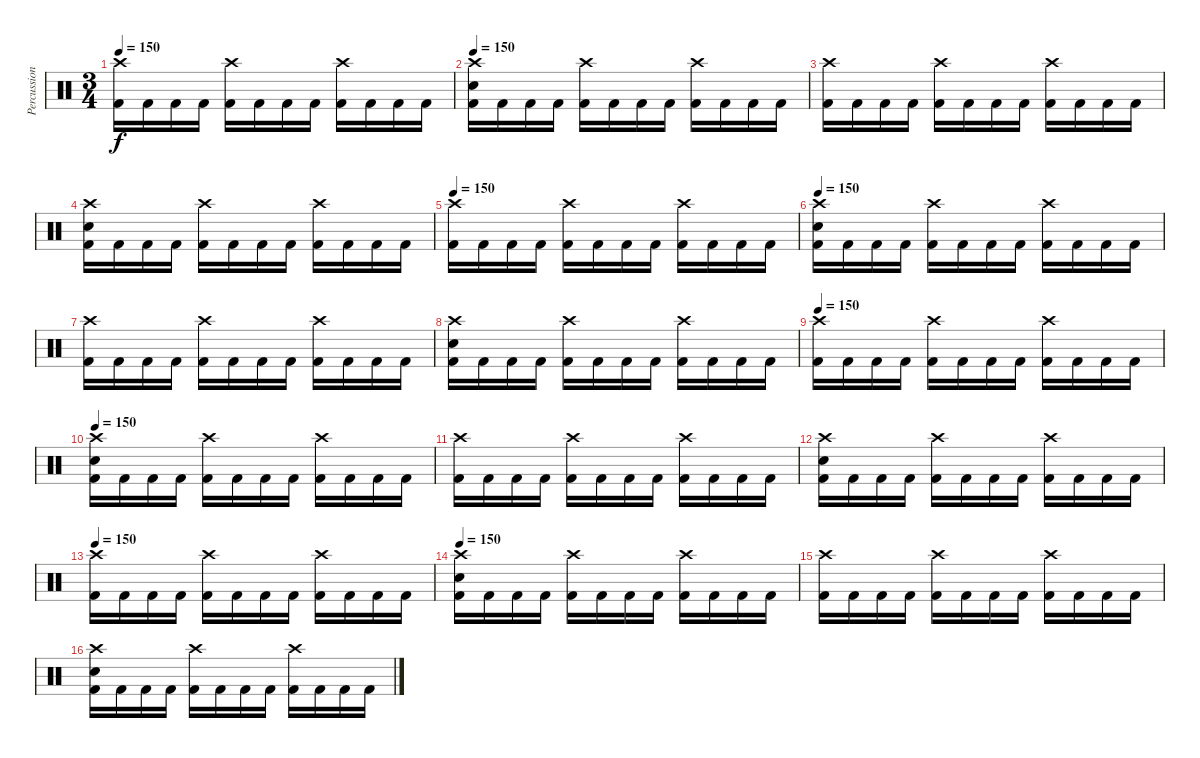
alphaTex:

\track ("Percussion" "Percussion") {instrument percussion}
\staff {score}
\articulation defaults
\ts (3 4)
\tempo 150
\clef neutral
\ks c
("Crash high (hit)" "Kick (hit) 2").16{dy f} "Kick (hit) 2".16 "Kick (hit) 2".16 "Kick (hit) 2".16 ("Crash high (hit)" "Kick (hit) 2").16 "Kick (hit) 2".16 "Kick (hit) 2".16 "Kick (hit) 2".16 ("Crash high (hit)" "Kick (hit) 2").16 "Kick (hit) 2".16 "Kick (hit) 2".16 "Kick (hit) 2".16 |
\tempo 150
("Crash high (hit)" "Electric Snare (hit)" "Kick (hit) 2").16 "Kick (hit) 2".16 "Kick (hit) 2".16 "Kick (hit) 2".16 ("Crash high (hit)" "Kick (hit) 2").16 "Kick (hit) 2".16 "Kick (hit) 2".16 "Kick (hit) 2".16 ("Crash high (hit)" "Kick (hit) 2").16 "Kick (hit) 2".16 "Kick (hit) 2".16 "Kick (hit) 2".16 |
("Crash high (hit)" "Kick (hit) 2").16 "Kick (hit) 2".16 "Kick (hit) 2".16 "Kick (hit) 2".16 ("Crash high (hit)" "Kick (hit) 2").16 "Kick (hit) 2".16 "Kick (hit) 2".16 "Kick (hit) 2".16 ("Crash high (hit)" "Kick (hit) 2").16 "Kick (hit) 2".16 "Kick (hit) 2".16 "Kick (hit) 2".16 |
("Crash high (hit)" "Electric Snare (hit)" "Kick (hit) 2").16 "Kick (hit) 2".16 "Kick (hit) 2".16 "Kick (hit) 2".16 ("Crash high (hit)" "Kick (hit) 2").16 "Kick (hit) 2".16 "Kick (hit) 2".16 "Kick (hit) 2".16 ("Crash high (hit)" "Kick (hit) 2").16 "Kick (hit) 2".16 "Kick (hit) 2".16 "Kick (hit) 2".16 |
\tempo 150
("Crash high (hit)" "Kick (hit) 2").16 "Kick (hit) 2".16 "Kick (hit) 2".16 "Kick (hit) 2".16 ("Crash high (hit)" "Kick (hit) 2").16 "Kick (hit) 2".16 "Kick (hit) 2".16 "Kick (hit) 2".16 ("Crash high (hit)" "Kick (hit) 2").16 "Kick (hit) 2".16 "Kick (hit) 2".16 "Kick (hit) 2".16 |
\tempo 150
("Crash high (hit)" "Electric Snare (hit)" "Kick (hit) 2").16 "Kick (hit) 2".16 "Kick (hit) 2".16 "Kick (hit) 2".16 ("Crash high (hit)" "Kick (hit) 2").16 "Kick (hit) 2".16 "Kick (hit) 2".16 "Kick (hit) 2".16 ("Crash high (hit)" "Kick (hit) 2").16 "Kick (hit) 2".16 "Kick (hit) 2".16 "Kick (hit) 2".16 |
("Crash high (hit)" "Kick (hit) 2").16 "Kick (hit) 2".16 "Kick (hit) 2".16 "Kick (hit) 2".16 ("Crash high (hit)" "Kick (hit) 2").16 "Kick (hit) 2".16 "Kick (hit) 2".16 "Kick (hit) 2".16 ("Crash high (hit)" "Kick (hit) 2").16 "Kick (hit) 2".16 "Kick (hit) 2".16 "Kick (hit) 2".16 |
("Crash high (hit)" "Electric Snare (hit)" "Kick (hit) 2").16 "Kick (hit) 2".16 "Kick (hit) 2".16 "Kick (hit) 2".16 ("Crash high (hit)" "Kick (hit) 2").16 "Kick (hit) 2".16 "Kick (hit) 2".16 "Kick (hit) 2".16 ("Crash high (hit)" "Kick (hit) 2").16 "Kick (hit) 2".16 "Kick (hit) 2".16 "Kick (hit) 2".16 |
\tempo 150
("Crash high (hit)" "Kick (hit) 2").16 "Kick (hit) 2".16 "Kick (hit) 2".16 "Kick (hit) 2".16 ("Crash high (hit)" "Kick (hit) 2").16 "Kick (hit) 2".16 "Kick (hit) 2".16 "Kick (hit) 2".16 ("Crash high (hit)" "Kick (hit) 2").16 "Kick (hit) 2".16 "Kick (hit) 2".16 "Kick (hit) 2".16 |
\tempo 150
("Crash high (hit)" "Electric Snare (hit)" "Kick (hit) 2").16 "Kick (hit) 2".16 "Kick (hit) 2".16 "Kick (hit) 2".16 ("Crash high (hit)" "Kick (hit) 2").16 "Kick (hit) 2".16 "Kick (hit) 2".16 "Kick (hit) 2".16 ("Crash high (hit)" "Kick (hit) 2").16 "Kick (hit) 2".16 "Kick (hit) 2".16 "Kick (hit) 2".16 |
("Crash high (hit)" "Kick (hit) 2").16 "Kick (hit) 2".16 "Kick (hit) 2".16 "Kick (hit) 2".16 ("Crash high (hit)" "Kick (hit) 2").16 "Kick (hit) 2".16 "Kick (hit) 2".16 "Kick (hit) 2".16 ("Crash high (hit)" "Kick (hit) 2").16 "Kick (hit) 2".16 "Kick (hit) 2".16 "Kick (hit) 2".16 |
("Crash high (hit)" "Electric Snare (hit)" "Kick (hit) 2").16 "Kick (hit) 2".16 "Kick (hit) 2".16 "Kick (hit) 2".16 ("Crash high (hit)" "Kick (hit) 2").16 "Kick (hit) 2".16 "Kick (hit) 2".16 "Kick (hit) 2".16 ("Crash high (hit)" "Kick (hit) 2").16 "Kick (hit) 2".16 "Kick (hit) 2".16 "Kick (hit) 2".16 |
\tempo 150
("Crash high (hit)" "Kick (hit) 2").16 "Kick (hit) 2".16 "Kick (hit) 2".16 "Kick (hit) 2".16 ("Crash high (hit)" "Kick (hit) 2").16 "Kick (hit) 2".16 "Kick (hit) 2".16 "Kick (hit) 2".16 ("Crash high (hit)" "Kick (hit) 2").16 "Kick (hit) 2".16 "Kick (hit) 2".16 "Kick (hit) 2".16 |
\tempo 150
("Crash high (hit)" "Electric Snare (hit)" "Kick (hit) 2").16 "Kick (hit) 2".16 "Kick (hit) 2".16 "Kick (hit) 2".16 ("Crash high (hit)" "Kick (hit) 2").16 "Kick (hit) 2".16 "Kick (hit) 2".16 "Kick (hit) 2".16 ("Crash high (hit)" "Kick (hit) 2").16 "Kick (hit) 2".16 "Kick (hit) 2".16 "Kick (hit) 2".16 |
("Crash high (hit)" "Kick (hit) 2").16 "Kick (hit) 2".16 "Kick (hit) 2".16 "Kick (hit) 2".16 ("Crash high (hit)" "Kick (hit) 2").16 "Kick (hit) 2".16 "Kick (hit) 2".16 "Kick (hit) 2".16 ("Crash high (hit)" "Kick (hit) 2").16 "Kick (hit) 2".16 "Kick (hit) 2".16 "Kick (hit) 2".16 |
("Crash high (hit)" "Electric Snare (hit)" "Kick (hit) 2").16 "Kick (hit) 2".16 "Kick (hit) 2".16 "Kick (hit) 2".16 ("Crash high (hit)" "Kick (hit) 2").16 "Kick (hit) 2".16 "Kick (hit) 2".16 "Kick (hit) 2".16 ("Crash high (hit)" "Kick (hit) 2").16 "Kick (hit) 2".16 "Kick (hit) 2".16 "Kick (hit) 2".16
